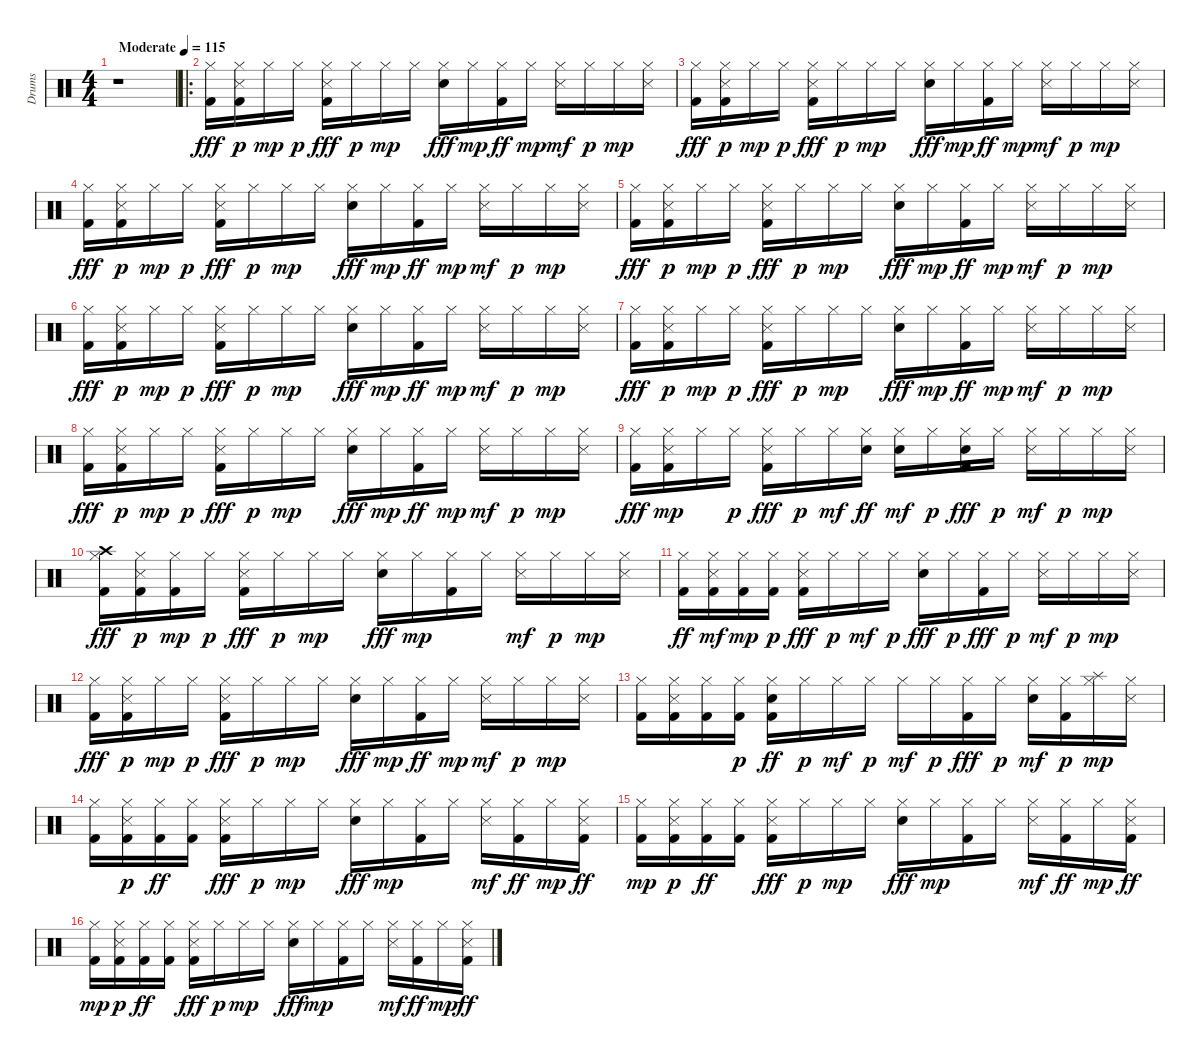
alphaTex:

\track ("Drums" "Drums") {instrument percussion}
\staff {score}
\articulation defaults
\ts (4 4)
\tempo (115 "Moderate")
\clef neutral
\ks c
r.1{dy fff} |
\ro
("Hi-Hat (closed)" "Kick (hit) 2").16 ("Kick (hit) 2" "Snare (side stick) 3" "Hi-Hat (closed)").16{dy p} "Hi-Hat (closed)".16{dy mp} "Hi-Hat (closed)".16{dy p} ("Hi-Hat (closed)" "Snare (side stick) 3" "Kick (hit) 2").16{dy fff} "Hi-Hat (closed)".16{dy p} "Hi-Hat (closed)".16{dy mp} "Hi-Hat (closed)".16 ("Hi-Hat (closed)" "Snare (hit) 2").16{dy fff} "Hi-Hat (closed)".16{dy mp} ("Hi-Hat (closed)" "Kick (hit) 2").16{dy ff} "Hi-Hat (closed)".16{dy mp} ("Snare (side stick) 3" "Hi-Hat (closed)").16{dy mf} "Hi-Hat (closed)".16{dy p} "Hi-Hat (closed)".16{dy mp} ("Hi-Hat (closed)" "Snare (side stick) 3").16 |
("Hi-Hat (closed)" "Kick (hit) 2").16{dy fff} ("Kick (hit) 2" "Snare (side stick) 3" "Hi-Hat (closed)").16{dy p} "Hi-Hat (closed)".16{dy mp} "Hi-Hat (closed)".16{dy p} ("Hi-Hat (closed)" "Snare (side stick) 3" "Kick (hit) 2").16{dy fff} "Hi-Hat (closed)".16{dy p} "Hi-Hat (closed)".16{dy mp} "Hi-Hat (closed)".16 ("Hi-Hat (closed)" "Snare (hit) 2").16{dy fff} "Hi-Hat (closed)".16{dy mp} ("Hi-Hat (closed)" "Kick (hit) 2").16{dy ff} "Hi-Hat (closed)".16{dy mp} ("Snare (side stick) 3" "Hi-Hat (closed)").16{dy mf} "Hi-Hat (closed)".16{dy p} "Hi-Hat (closed)".16{dy mp} ("Hi-Hat (closed)" "Snare (side stick) 3").16 |
("Hi-Hat (closed)" "Kick (hit) 2").16{dy fff} ("Kick (hit) 2" "Snare (side stick) 3" "Hi-Hat (closed)").16{dy p} "Hi-Hat (closed)".16{dy mp} "Hi-Hat (closed)".16{dy p} ("Hi-Hat (closed)" "Snare (side stick) 3" "Kick (hit) 2").16{dy fff} "Hi-Hat (closed)".16{dy p} "Hi-Hat (closed)".16{dy mp} "Hi-Hat (closed)".16 ("Hi-Hat (closed)" "Snare (hit) 2").16{dy fff} "Hi-Hat (closed)".16{dy mp} ("Hi-Hat (closed)" "Kick (hit) 2").16{dy ff} "Hi-Hat (closed)".16{dy mp} ("Snare (side stick) 3" "Hi-Hat (closed)").16{dy mf} "Hi-Hat (closed)".16{dy p} "Hi-Hat (closed)".16{dy mp} ("Hi-Hat (closed)" "Snare (side stick) 3").16 |
("Hi-Hat (closed)" "Kick (hit) 2").16{dy fff} ("Kick (hit) 2" "Snare (side stick) 3" "Hi-Hat (closed)").16{dy p} "Hi-Hat (closed)".16{dy mp} "Hi-Hat (closed)".16{dy p} ("Hi-Hat (closed)" "Snare (side stick) 3" "Kick (hit) 2").16{dy fff} "Hi-Hat (closed)".16{dy p} "Hi-Hat (closed)".16{dy mp} "Hi-Hat (closed)".16 ("Hi-Hat (closed)" "Snare (hit) 2").16{dy fff} "Hi-Hat (closed)".16{dy mp} ("Hi-Hat (closed)" "Kick (hit) 2").16{dy ff} "Hi-Hat (closed)".16{dy mp} ("Snare (side stick) 3" "Hi-Hat (closed)").16{dy mf} "Hi-Hat (closed)".16{dy p} "Hi-Hat (closed)".16{dy mp} ("Hi-Hat (closed)" "Snare (side stick) 3").16 |
("Hi-Hat (closed)" "Kick (hit) 2").16{dy fff} ("Kick (hit) 2" "Snare (side stick) 3" "Hi-Hat (closed)").16{dy p} "Hi-Hat (closed)".16{dy mp} "Hi-Hat (closed)".16{dy p} ("Hi-Hat (closed)" "Snare (side stick) 3" "Kick (hit) 2").16{dy fff} "Hi-Hat (closed)".16{dy p} "Hi-Hat (closed)".16{dy mp} "Hi-Hat (closed)".16 ("Hi-Hat (closed)" "Snare (hit) 2").16{dy fff} "Hi-Hat (closed)".16{dy mp} ("Hi-Hat (closed)" "Kick (hit) 2").16{dy ff} "Hi-Hat (closed)".16{dy mp} ("Snare (side stick) 3" "Hi-Hat (closed)").16{dy mf} "Hi-Hat (closed)".16{dy p} "Hi-Hat (closed)".16{dy mp} ("Hi-Hat (closed)" "Snare (side stick) 3").16 |
("Hi-Hat (closed)" "Kick (hit) 2").16{dy fff} ("Kick (hit) 2" "Snare (side stick) 3" "Hi-Hat (closed)").16{dy p} "Hi-Hat (closed)".16{dy mp} "Hi-Hat (closed)".16{dy p} ("Hi-Hat (closed)" "Snare (side stick) 3" "Kick (hit) 2").16{dy fff} "Hi-Hat (closed)".16{dy p} "Hi-Hat (closed)".16{dy mp} "Hi-Hat (closed)".16 ("Hi-Hat (closed)" "Snare (hit) 2").16{dy fff} "Hi-Hat (closed)".16{dy mp} ("Hi-Hat (closed)" "Kick (hit) 2").16{dy ff} "Hi-Hat (closed)".16{dy mp} ("Snare (side stick) 3" "Hi-Hat (closed)").16{dy mf} "Hi-Hat (closed)".16{dy p} "Hi-Hat (closed)".16{dy mp} ("Hi-Hat (closed)" "Snare (side stick) 3").16 |
("Hi-Hat (closed)" "Kick (hit) 2").16{dy fff} ("Kick (hit) 2" "Snare (side stick) 3" "Hi-Hat (closed)").16{dy p} "Hi-Hat (closed)".16{dy mp} "Hi-Hat (closed)".16{dy p} ("Hi-Hat (closed)" "Snare (side stick) 3" "Kick (hit) 2").16{dy fff} "Hi-Hat (closed)".16{dy p} "Hi-Hat (closed)".16{dy mp} "Hi-Hat (closed)".16 ("Hi-Hat (closed)" "Snare (hit) 2").16{dy fff} "Hi-Hat (closed)".16{dy mp} ("Hi-Hat (closed)" "Kick (hit) 2").16{dy ff} "Hi-Hat (closed)".16{dy mp} ("Snare (side stick) 3" "Hi-Hat (closed)").16{dy mf} "Hi-Hat (closed)".16{dy p} "Hi-Hat (closed)".16{dy mp} ("Hi-Hat (closed)" "Snare (side stick) 3").16 |
("Hi-Hat (closed)" "Kick (hit) 2").16{dy fff} ("Hi-Hat (closed)" "Kick (hit) 2" "Snare (side stick) 3").16{dy mp} "Hi-Hat (closed)".16 "Hi-Hat (closed)".16{dy p} ("Kick (hit) 2" "Hi-Hat (closed)" "Snare (side stick) 3").16{dy fff} "Hi-Hat (closed)".16{dy p} "Hi-Hat (closed)".16{dy mf} ("Hi-Hat (closed)" "Snare (hit) 2").16{dy ff} ("Snare (hit) 2" "Hi-Hat (closed)").16{dy mf} "Hi-Hat (closed)".16{dy p} ("Snare (hit) 2" "Hi-Hat (closed)" "Kick (hit) 2").16{dy fff} "Hi-Hat (closed)".16{dy p} ("Snare (side stick) 3" "Hi-Hat (closed)").16{dy mf} "Hi-Hat (closed)".16{dy p} "Hi-Hat (closed)".16{dy mp} ("Hi-Hat (closed)" "Snare (side stick) 3").16 |
("Hi-Hat (closed)" "Crash high (hit)" "Kick (hit) 2").16{dy fff} ("Snare (side stick) 3" "Hi-Hat (closed)" "Kick (hit) 2").16{dy p} ("Hi-Hat (closed)" "Kick (hit) 2").16{dy mp} "Hi-Hat (closed)".16{dy p} ("Kick (hit) 2" "Hi-Hat (closed)" "Snare (side stick) 3").16{dy fff} "Hi-Hat (closed)".16{dy p} "Hi-Hat (closed)".16{dy mp} "Hi-Hat (closed)".16 ("Hi-Hat (closed)" "Snare (hit) 2").16{dy fff} "Hi-Hat (closed)".16{dy mp} ("Kick (hit) 2" "Hi-Hat (closed)").16 "Hi-Hat (closed)".16 ("Snare (side stick) 3" "Hi-Hat (closed)").16{dy mf} "Hi-Hat (closed)".16{dy p} "Hi-Hat (closed)".16{dy mp} ("Hi-Hat (closed)" "Snare (side stick) 3").16 |
("Hi-Hat (closed)" "Kick (hit) 2").16{dy ff} ("Hi-Hat (closed)" "Snare (side stick) 3" "Kick (hit) 2").16{dy mf} ("Hi-Hat (closed)" "Kick (hit) 2").16{dy mp} ("Hi-Hat (closed)" "Kick (hit) 2").16{dy p} ("Hi-Hat (closed)" "Snare (side stick) 3" "Kick (hit) 2").16{dy fff} "Hi-Hat (closed)".16{dy p} "Hi-Hat (closed)".16{dy mf} "Hi-Hat (closed)".16{dy p} ("Hi-Hat (closed)" "Snare (hit) 2").16{dy fff} "Hi-Hat (closed)".16{dy p} ("Hi-Hat (closed)" "Kick (hit) 2").16{dy fff} "Hi-Hat (closed)".16{dy p} ("Snare (side stick) 3" "Hi-Hat (closed)").16{dy mf} "Hi-Hat (closed)".16{dy p} "Hi-Hat (closed)".16{dy mp} ("Hi-Hat (closed)" "Snare (side stick) 3").16 |
("Hi-Hat (closed)" "Kick (hit) 2").16{dy fff} ("Kick (hit) 2" "Snare (side stick) 3" "Hi-Hat (closed)").16{dy p} "Hi-Hat (closed)".16{dy mp} "Hi-Hat (closed)".16{dy p} ("Hi-Hat (closed)" "Snare (side stick) 3" "Kick (hit) 2").16{dy fff} "Hi-Hat (closed)".16{dy p} "Hi-Hat (closed)".16{dy mp} "Hi-Hat (closed)".16 ("Hi-Hat (closed)" "Snare (hit) 2").16{dy fff} "Hi-Hat (closed)".16{dy mp} ("Hi-Hat (closed)" "Kick (hit) 2").16{dy ff} "Hi-Hat (closed)".16{dy mp} ("Snare (side stick) 3" "Hi-Hat (closed)").16{dy mf} "Hi-Hat (closed)".16{dy p} "Hi-Hat (closed)".16{dy mp} ("Hi-Hat (closed)" "Snare (side stick) 3").16 |
("Kick (hit) 2" "Hi-Hat (closed)").16 ("Kick (hit) 2" "Hi-Hat (closed)" "Snare (side stick) 3").16 ("Kick (hit) 2" "Hi-Hat (closed)").16 ("Kick (hit) 2" "Hi-Hat (closed)").16{dy p} ("Kick (hit) 2" "Hi-Hat (closed)" "Snare (hit) 2").16{dy ff} "Hi-Hat (closed)".16{dy p} "Hi-Hat (closed)".16{dy mf} "Hi-Hat (closed)".16{dy p} "Hi-Hat (closed)".16{dy mf} "Hi-Hat (closed)".16{dy p} ("Hi-Hat (closed)" "Kick (hit) 2").16{dy fff} "Hi-Hat (closed)".16{dy p} ("Snare (hit) 2" "Hi-Hat (closed)").16{dy mf} ("Kick (hit) 2" "Hi-Hat (closed)").16{dy p} ("Splash (hit)" "Hi-Hat (closed)").16{dy mp} ("Hi-Hat (closed)" "Snare (side stick) 3").16 |
("Kick (hit) 2" "Hi-Hat (closed)").16 ("Snare (side stick) 3" "Hi-Hat (closed)" "Kick (hit) 2").16{dy p} ("Hi-Hat (closed)" "Kick (hit) 2").16{dy ff} ("Hi-Hat (closed)" "Kick (hit) 2").16 ("Hi-Hat (closed)" "Snare (side stick) 3" "Kick (hit) 2").16{dy fff} "Hi-Hat (closed)".16{dy p} "Hi-Hat (closed)".16{dy mp} "Hi-Hat (closed)".16 ("Hi-Hat (closed)" "Snare (hit) 2").16{dy fff} "Hi-Hat (closed)".16{dy mp} ("Kick (hit) 2" "Hi-Hat (closed)").16 "Hi-Hat (closed)".16 ("Snare (side stick) 3" "Hi-Hat (closed)").16{dy mf} ("Hi-Hat (closed)" "Kick (hit) 2").16{dy ff} "Hi-Hat (closed)".16{dy mp} ("Hi-Hat (closed)" "Snare (side stick) 3" "Kick (hit) 2").16{dy ff} |
("Kick (hit) 2" "Hi-Hat (closed)").16{dy mp} ("Snare (side stick) 3" "Hi-Hat (closed)" "Kick (hit) 2").16{dy p} ("Hi-Hat (closed)" "Kick (hit) 2").16{dy ff} ("Hi-Hat (closed)" "Kick (hit) 2").16 ("Hi-Hat (closed)" "Snare (side stick) 3" "Kick (hit) 2").16{dy fff} "Hi-Hat (closed)".16{dy p} "Hi-Hat (closed)".16{dy mp} "Hi-Hat (closed)".16 ("Hi-Hat (closed)" "Snare (hit) 2").16{dy fff} "Hi-Hat (closed)".16{dy mp} ("Kick (hit) 2" "Hi-Hat (closed)").16 "Hi-Hat (closed)".16 ("Snare (side stick) 3" "Hi-Hat (closed)").16{dy mf} ("Hi-Hat (closed)" "Kick (hit) 2").16{dy ff} "Hi-Hat (closed)".16{dy mp} ("Hi-Hat (closed)" "Snare (side stick) 3" "Kick (hit) 2").16{dy ff} |
("Kick (hit) 2" "Hi-Hat (closed)").16{dy mp} ("Snare (side stick) 3" "Hi-Hat (closed)" "Kick (hit) 2").16{dy p} ("Hi-Hat (closed)" "Kick (hit) 2").16{dy ff} ("Hi-Hat (closed)" "Kick (hit) 2").16 ("Hi-Hat (closed)" "Snare (side stick) 3" "Kick (hit) 2").16{dy fff} "Hi-Hat (closed)".16{dy p} "Hi-Hat (closed)".16{dy mp} "Hi-Hat (closed)".16 ("Hi-Hat (closed)" "Snare (hit) 2").16{dy fff} "Hi-Hat (closed)".16{dy mp} ("Kick (hit) 2" "Hi-Hat (closed)").16 "Hi-Hat (closed)".16 ("Snare (side stick) 3" "Hi-Hat (closed)").16{dy mf} ("Hi-Hat (closed)" "Kick (hit) 2").16{dy ff} "Hi-Hat (closed)".16{dy mp} ("Hi-Hat (closed)" "Snare (side stick) 3" "Kick (hit) 2").16{dy ff}
